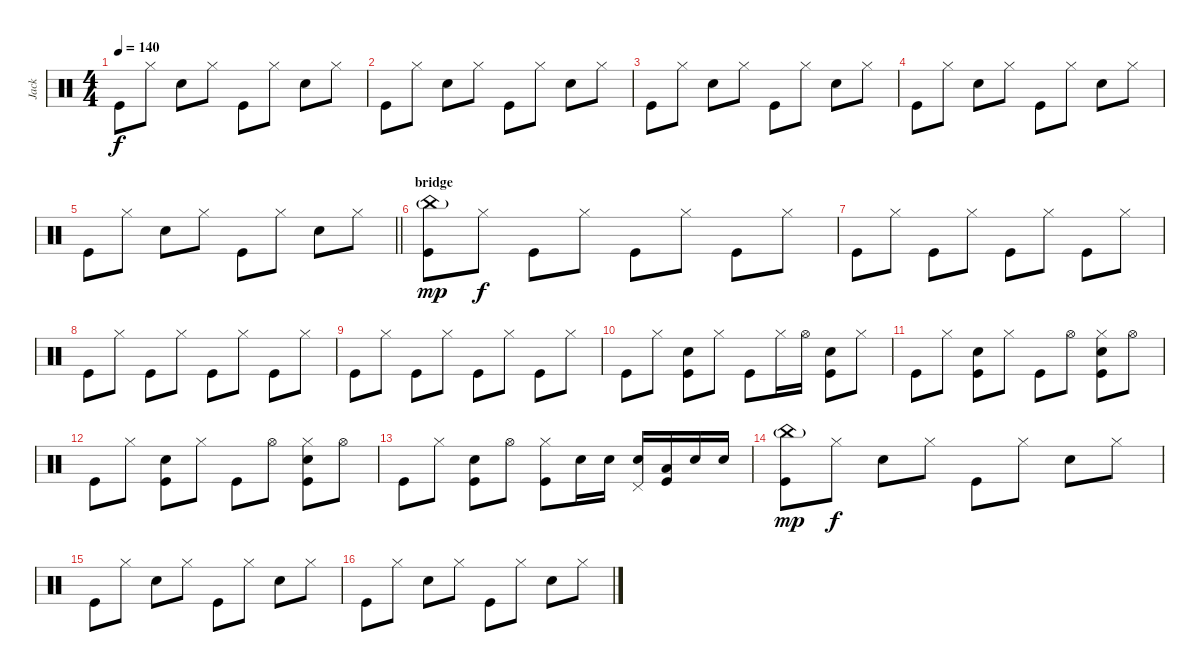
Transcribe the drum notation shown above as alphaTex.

\track ("Jack" "Jack") {instrument percussion}
\staff {score}
\articulation defaults
\ts (4 4)
\tempo 140
\clef neutral
\ks c "Kick (hit)".8{dy f} "Hi-Hat (closed)".8 "Snare (hit) 2".8 "Hi-Hat (closed)".8 "Kick (hit)".8 "Hi-Hat (closed)".8 "Snare (hit) 2".8 "Hi-Hat (closed)".8
|
"Kick (hit)".8 "Hi-Hat (closed)".8 "Snare (hit) 2".8 "Hi-Hat (closed)".8 "Kick (hit)".8 "Hi-Hat (closed)".8 "Snare (hit) 2".8 "Hi-Hat (closed)".8 |
"Kick (hit)".8 "Hi-Hat (closed)".8 "Snare (hit) 2".8 "Hi-Hat (closed)".8 "Kick (hit)".8 "Hi-Hat (closed)".8 "Snare (hit) 2".8 "Hi-Hat (closed)".8 |
"Kick (hit)".8 "Hi-Hat (closed)".8 "Snare (hit) 2".8 "Hi-Hat (closed)".8 "Kick (hit)".8 "Hi-Hat (closed)".8 "Snare (hit) 2".8 "Hi-Hat (closed)".8 |
\barLineRight lightlight "Kick (hit)".8 "Hi-Hat (closed)".8 "Snare (hit) 2".8 "Hi-Hat (closed)".8 "Kick (hit)".8 "Hi-Hat (closed)".8 "Snare (hit) 2".8 "Hi-Hat (closed)".8
|
\section ("" "bridge")
("China (hit)"{g} "Kick (hit)").8{dy mp} "Hi-Hat (closed)".8{dy f} "Kick (hit)".8 "Hi-Hat (closed)".8 "Kick (hit)".8 "Hi-Hat (closed)".8 "Kick (hit)".8 "Hi-Hat (closed)".8 |
"Kick (hit)".8 "Hi-Hat (closed)".8 "Kick (hit)".8 "Hi-Hat (closed)".8 "Kick (hit)".8 "Hi-Hat (closed)".8 "Kick (hit)".8 "Hi-Hat (closed)".8 |
"Kick (hit)".8 "Hi-Hat (closed)".8 "Kick (hit)".8 "Hi-Hat (closed)".8 "Kick (hit)".8 "Hi-Hat (closed)".8 "Kick (hit)".8 "Hi-Hat (closed)".8 |
"Kick (hit)".8 "Hi-Hat (closed)".8 "Kick (hit)".8 "Hi-Hat (closed)".8 "Kick (hit)".8 "Hi-Hat (closed)".8 "Kick (hit)".8 "Hi-Hat (closed)".8 |
"Kick (hit)".8 "Hi-Hat (closed)".8 ("Snare (hit) 2" "Kick (hit)").8 "Hi-Hat (closed)".8 "Kick (hit)".8 "Hi-Hat (closed)".16 "Hi-Hat (open)".16 ("Snare (hit) 2" "Kick (hit)").8 "Hi-Hat (closed)".8 |
"Kick (hit)".8 "Hi-Hat (closed)".8 ("Snare (hit) 2" "Kick (hit)").8 "Hi-Hat (closed)".8 "Kick (hit)".8 "Hi-Hat (open)".8 ("Hi-Hat (closed)" "Snare (hit) 2" "Kick (hit)").8 "Hi-Hat (open)".8 |
"Kick (hit)".8 "Hi-Hat (closed)".8 ("Snare (hit) 2" "Kick (hit)").8 "Hi-Hat (closed)".8 "Kick (hit)".8 "Hi-Hat (open)".8 ("Hi-Hat (closed)" "Snare (hit) 2" "Kick (hit)").8 "Hi-Hat (open)".8 |
"Kick (hit)".8 "Hi-Hat (closed)".8 ("Snare (hit) 2" "Kick (hit)").8 "Hi-Hat (open)".8 ("Hi-Hat (closed)" "Kick (hit)").8 "Snare (hit) 2".16 "Snare (hit) 2".16 ("Pedal Hi-Hat (hit)" "Snare (hit) 2").16 ("Low Floor Tom (hit)" "Kick (hit)").16 "Snare (hit) 2".16 "Snare (hit) 2".16 |
("China (hit)"{g} "Kick (hit)").8{dy mp} "Hi-Hat (closed)".8{dy f} "Snare (hit) 2".8 "Hi-Hat (closed)".8 "Kick (hit)".8 "Hi-Hat (closed)".8 "Snare (hit) 2".8 "Hi-Hat (closed)".8 |
"Kick (hit)".8 "Hi-Hat (closed)".8 "Snare (hit) 2".8 "Hi-Hat (closed)".8 "Kick (hit)".8 "Hi-Hat (closed)".8 "Snare (hit) 2".8 "Hi-Hat (closed)".8 |
"Kick (hit)".8 "Hi-Hat (closed)".8 "Snare (hit) 2".8 "Hi-Hat (closed)".8 "Kick (hit)".8 "Hi-Hat (closed)".8 "Snare (hit) 2".8 "Hi-Hat (closed)".8
